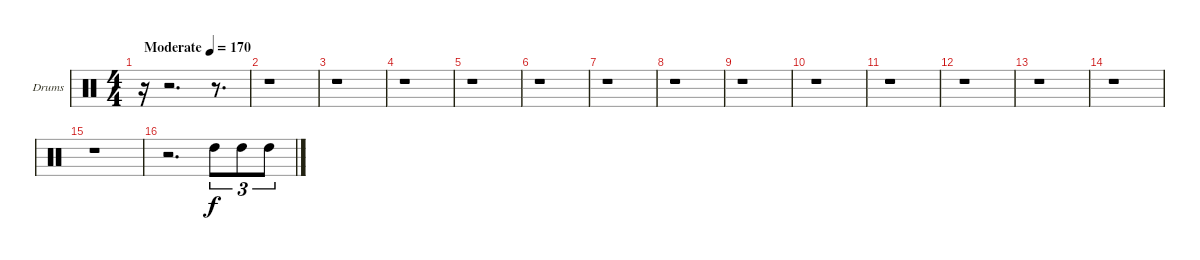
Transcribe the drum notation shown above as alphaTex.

\bracketExtendMode groupsimilarinstruments
\firstSystemTrackNameOrientation horizontal
\otherSystemsTrackNameOrientation horizontal
\track ("Дмитрий Кривенков" "Drums") {instrument percussion}
\staff {score}
\articulation defaults
\ts (4 4)
\beaming (8 2 2 2 2)
\tempo (170 "Moderate")
\clef neutral
\ks c
r.16{dy f} r.2{d} r.8{d} |
r.1 |
r.1 |
r.1 |
r.1 |
r.1 |
r.1 |
r.1 |
r.1 |
r.1 |
r.1 |
r.1 |
r.1 |
r.1 |
r.1 |
r.2{d} "High Tom (hit)".8{tu (3 2)} "High Tom (hit)".8{tu (3 2)} "High Tom (hit)".8{tu (3 2)}
